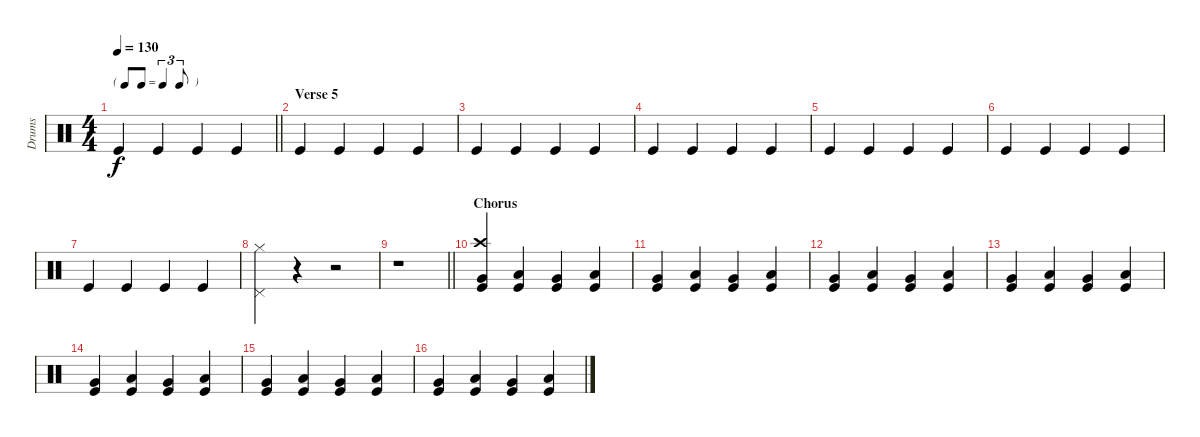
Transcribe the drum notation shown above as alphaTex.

\track ("Drums" "Drums") {instrument percussion}
\staff {score}
\articulation defaults
\ts (4 4)
\tf triplet8th
\tempo 130
\clef neutral
\barLineRight lightlight
\ks c "Kick (hit)".4{dy f} "Kick (hit)".4 "Kick (hit)".4 "Kick (hit)".4
|
\section ("" "Verse 5")
"Kick (hit)".4 "Kick (hit)".4 "Kick (hit)".4 "Kick (hit)".4 |
"Kick (hit)".4 "Kick (hit)".4 "Kick (hit)".4 "Kick (hit)".4 |
"Kick (hit)".4 "Kick (hit)".4 "Kick (hit)".4 "Kick (hit)".4 |
"Kick (hit)".4 "Kick (hit)".4 "Kick (hit)".4 "Kick (hit)".4 |
"Kick (hit)".4 "Kick (hit)".4 "Kick (hit)".4 "Kick (hit)".4 |
"Kick (hit)".4 "Kick (hit)".4 "Kick (hit)".4 "Kick (hit)".4 |
("Hi-Hat (closed)" "Pedal Hi-Hat (hit)").4 r.4 r.2 |
\barLineRight lightlight
r.1 |
\section ("" "Chorus")
("Kick (hit)" "Crash high (hit)" "Very Low Tom (hit)").4 ("Low Tom (hit)" "Kick (hit)").4 ("Kick (hit)" "Very Low Tom (hit)").4 ("Low Tom (hit)" "Kick (hit)").4 |
("Kick (hit)" "Very Low Tom (hit)").4 ("Low Tom (hit)" "Kick (hit)").4 ("Kick (hit)" "Very Low Tom (hit)").4 ("Low Tom (hit)" "Kick (hit)").4 |
("Kick (hit)" "Very Low Tom (hit)").4 ("Low Tom (hit)" "Kick (hit)").4 ("Kick (hit)" "Very Low Tom (hit)").4 ("Low Tom (hit)" "Kick (hit)").4 |
("Kick (hit)" "Very Low Tom (hit)").4 ("Low Tom (hit)" "Kick (hit)").4 ("Kick (hit)" "Very Low Tom (hit)").4 ("Low Tom (hit)" "Kick (hit)").4 |
("Kick (hit)" "Very Low Tom (hit)").4 ("Low Tom (hit)" "Kick (hit)").4 ("Kick (hit)" "Very Low Tom (hit)").4 ("Low Tom (hit)" "Kick (hit)").4 |
("Kick (hit)" "Very Low Tom (hit)").4 ("Low Tom (hit)" "Kick (hit)").4 ("Kick (hit)" "Very Low Tom (hit)").4 ("Low Tom (hit)" "Kick (hit)").4 |
("Kick (hit)" "Very Low Tom (hit)").4 ("Low Tom (hit)" "Kick (hit)").4 ("Kick (hit)" "Very Low Tom (hit)").4 ("Low Tom (hit)" "Kick (hit)").4
